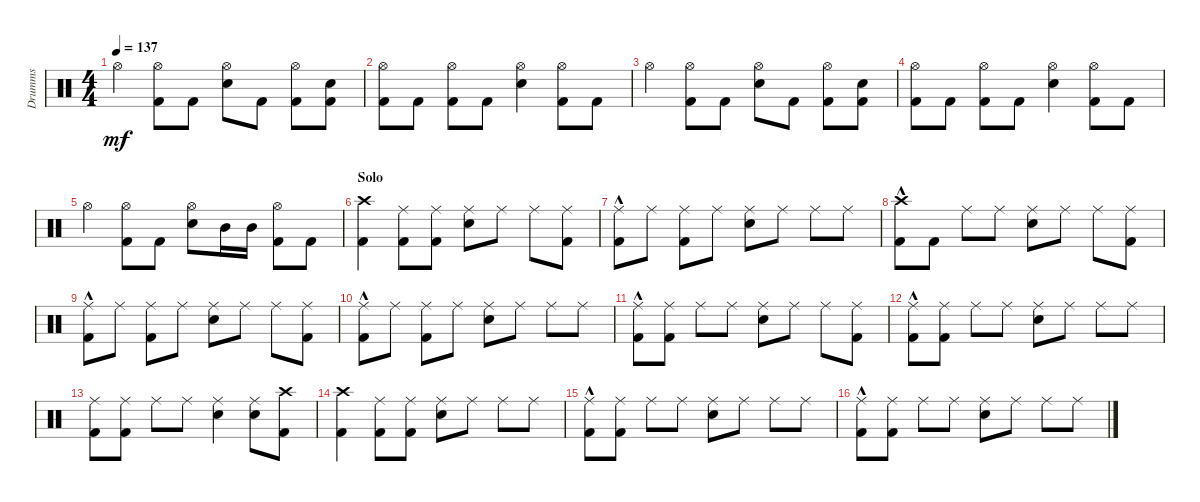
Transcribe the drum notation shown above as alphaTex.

\track ("Drumms" "Drumms") {instrument percussion}
\staff {score}
\articulation defaults
\ts (4 4)
\tempo 137
\clef neutral
\ks c "Hi-Hat (open)".4{dy mf}
("Hi-Hat (open)" "Kick (hit) 2").8 "Kick (hit) 2".8 ("Hi-Hat (open)" "Snare (hit) 2").8 "Kick (hit) 2".8 ("Hi-Hat (open)" "Kick (hit) 2").8 ("Snare (hit) 2" "Kick (hit) 2").8 |
("Hi-Hat (open)" "Kick (hit) 2").8 "Kick (hit) 2".8 ("Kick (hit) 2" "Hi-Hat (open)").8 "Kick (hit) 2".8 ("Snare (hit) 2" "Hi-Hat (open)").4 ("Hi-Hat (open)" "Kick (hit) 2").8 "Kick (hit) 2".8 |
"Hi-Hat (open)".4 ("Hi-Hat (open)" "Kick (hit) 2").8 "Kick (hit) 2".8 ("Hi-Hat (open)" "Snare (hit) 2").8 "Kick (hit) 2".8 ("Hi-Hat (open)" "Kick (hit) 2").8 ("Snare (hit) 2" "Kick (hit) 2").8 |
("Hi-Hat (open)" "Kick (hit) 2").8 "Kick (hit) 2".8 ("Kick (hit) 2" "Hi-Hat (open)").8 "Kick (hit) 2".8 ("Snare (hit) 2" "Hi-Hat (open)").4 ("Hi-Hat (open)" "Kick (hit) 2").8 "Kick (hit) 2".8 |
"Hi-Hat (open)".4 ("Hi-Hat (open)" "Kick (hit) 2").8 "Kick (hit) 2".8 ("Hi-Hat (open)" "Snare (hit) 2").8 "Mid Tom (hit)".16 "Mid Tom (hit)".16 ("Hi-Hat (open)" "Kick (hit) 2").8 "Kick (hit) 2".8 |
\section ("" "Solo")
("Crash high (hit)" "Kick (hit) 2").4 ("Ride (middle)" "Kick (hit) 2").8 ("Ride (middle)" "Kick (hit) 2").8 ("Ride (middle)" "Snare (hit) 2").8 "Ride (middle)".8 "Ride (middle)".8 ("Kick (hit) 2" "Ride (middle)").8 |
("Ride (middle)"{hac} "Kick (hit) 2").8 "Ride (middle)".8 ("Ride (middle)" "Kick (hit) 2").8 "Ride (middle)".8 ("Ride (middle)" "Snare (hit) 2").8 "Ride (middle)".8 "Ride (middle)".8 "Ride (middle)".8 |
("Crash high (hit)"{hac} "Kick (hit) 2").8 "Kick (hit) 2".8 "Ride (middle)".8 "Ride (middle)".8 ("Snare (hit) 2" "Ride (middle)").8 "Ride (middle)".8 "Ride (middle)".8 ("Ride (middle)" "Kick (hit) 2").8 |
("Ride (middle)"{hac} "Kick (hit) 2").8 "Ride (middle)".8 ("Ride (middle)" "Kick (hit) 2").8 "Ride (middle)".8 ("Ride (middle)" "Snare (hit) 2").8 "Ride (middle)".8 "Ride (middle)".8 ("Ride (middle)" "Kick (hit) 2").8 |
("Ride (middle)"{hac} "Kick (hit) 2").8 "Ride (middle)".8 ("Ride (middle)" "Kick (hit) 2").8 "Ride (middle)".8 ("Ride (middle)" "Snare (hit) 2").8 "Ride (middle)".8 "Ride (middle)".8 "Ride (middle)".8 |
("Ride (middle)"{hac} "Kick (hit) 2").8 ("Ride (middle)" "Kick (hit) 2").8 "Ride (middle)".8 "Ride (middle)".8 ("Ride (middle)" "Snare (hit) 2").8 "Ride (middle)".8 "Ride (middle)".8 ("Ride (middle)" "Kick (hit) 2").8 |
("Ride (middle)"{hac} "Kick (hit) 2").8 ("Ride (middle)" "Kick (hit) 2").8 "Ride (middle)".8 "Ride (middle)".8 ("Ride (middle)" "Snare (hit) 2").8 "Ride (middle)".8 "Ride (middle)".8 "Ride (middle)".8 |
("Ride (middle)" "Kick (hit) 2").8 ("Ride (middle)" "Kick (hit) 2").8 "Ride (middle)".8 "Ride (middle)".8 ("Ride (middle)" "Snare (hit) 2").4 ("Ride (middle)" "Snare (hit) 2").8 ("Crash high (hit)" "Kick (hit) 2").8 |
("Crash high (hit)" "Kick (hit) 2").4 ("Ride (middle)" "Kick (hit) 2").8 ("Ride (middle)" "Kick (hit) 2").8 ("Ride (middle)" "Snare (hit) 2").8 "Ride (middle)".8 "Ride (middle)".8 "Ride (middle)".8 |
("Ride (middle)"{hac} "Kick (hit) 2").8 ("Ride (middle)" "Kick (hit) 2").8 "Ride (middle)".8 "Ride (middle)".8 ("Ride (middle)" "Snare (hit) 2").8 "Ride (middle)".8 "Ride (middle)".8 "Ride (middle)".8 |
("Ride (middle)"{hac} "Kick (hit) 2").8 ("Ride (middle)" "Kick (hit) 2").8 "Ride (middle)".8 "Ride (middle)".8 ("Ride (middle)" "Snare (hit) 2").8 "Ride (middle)".8 "Ride (middle)".8 "Ride (middle)".8
